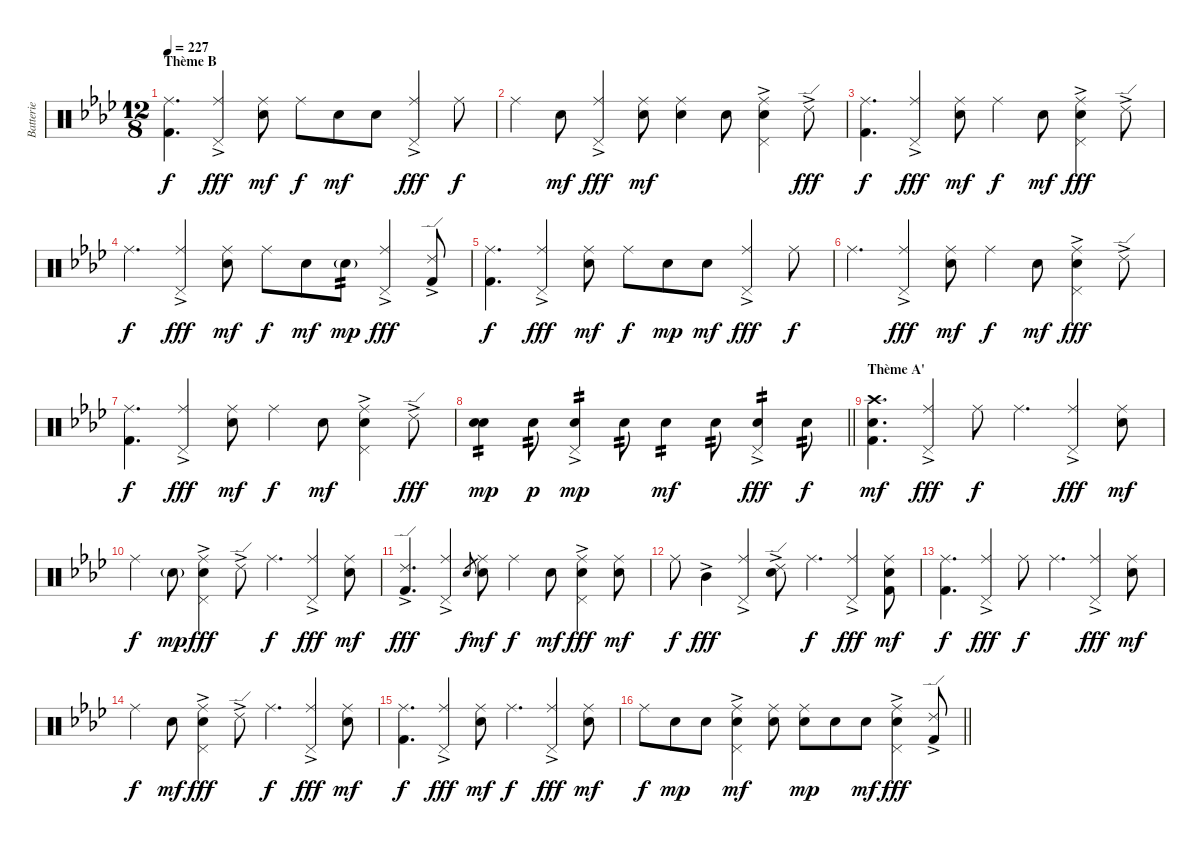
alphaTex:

\track ("Batterie" "Batterie") {instrument percussion}
\staff {score}
\articulation defaults
\ts (12 8)
\section ("" "Thème B")
\tempo 227
\clef neutral
\ks fminor
("Ride (middle)" "Kick (hit) 2").4{d dy f volume 11 balance 8} ("Ride (middle)" "Pedal Hi-Hat (hit)"{ac}).4{dy fff} ("Ride (middle)" "Snare (hit) 2").8{dy mf} "Ride (middle)".8{dy f} "Snare (hit) 2".8{dy mf} "Snare (hit) 2".8 ("Ride (middle)" "Pedal Hi-Hat (hit)"{ac}).4{dy fff} "Ride (middle)".8{dy f} |
"Ride (middle)".4 "Snare (hit) 2".8{dy mf} ("Ride (middle)" "Pedal Hi-Hat (hit)"{ac}).4{dy fff} ("Ride (middle)" "Snare (hit) 2").8{dy mf} ("Ride (middle)" "Snare (hit) 2").4 "Snare (hit) 2".8 ("Ride (middle)" "Pedal Hi-Hat (hit)"{ac} "Snare (hit) 2").4 "Ride (edge) 2"{ac}.8{dy fff} |
("Ride (middle)" "Kick (hit) 2").4{d dy f} ("Ride (middle)" "Pedal Hi-Hat (hit)"{ac}).4{dy fff} ("Ride (middle)" "Snare (hit) 2").8{dy mf} "Ride (middle)".4{dy f} "Snare (hit) 2".8{dy mf} ("Ride (middle)" "Pedal Hi-Hat (hit)"{ac} "Snare (hit) 2").4{dy fff} "Ride (edge) 2"{ac}.8 |
"Ride (middle)".4{d dy f} ("Ride (middle)" "Pedal Hi-Hat (hit)"{ac}).4{dy fff} ("Ride (middle)" "Snare (hit) 2").8{dy mf} "Ride (middle)".8{dy f} "Snare (hit) 2".8{dy mf} "Snare (hit) 2"{g}.8{tp 2 dy mp} ("Ride (middle)" "Pedal Hi-Hat (hit)"{ac}).4{dy fff} ("Ride (edge) 2"{ac} "Kick (hit) 2").8 |
("Ride (middle)" "Kick (hit) 2").4{d dy f} ("Ride (middle)" "Pedal Hi-Hat (hit)"{ac}).4{dy fff} ("Ride (middle)" "Snare (hit) 2").8{dy mf} "Ride (middle)".8{dy f} "Snare (hit) 2".8{dy mp} "Snare (hit) 2".8{dy mf} ("Ride (middle)" "Pedal Hi-Hat (hit)"{ac}).4{dy fff} "Ride (middle)".8{dy f} |
"Ride (middle)".4{d} ("Ride (middle)" "Pedal Hi-Hat (hit)"{ac}).4{dy fff} ("Ride (middle)" "Snare (hit) 2").8{dy mf} "Ride (middle)".4{dy f} "Snare (hit) 2".8{dy mf} ("Ride (middle)" "Pedal Hi-Hat (hit)"{ac} "Snare (hit) 2").4{dy fff} "Ride (edge) 2"{ac}.8 |
("Ride (middle)" "Kick (hit) 2").4{d dy f} ("Ride (middle)" "Pedal Hi-Hat (hit)"{ac}).4{dy fff} ("Ride (middle)" "Snare (hit) 2").8{dy mf} "Ride (middle)".4{dy f} "Snare (hit) 2".8{dy mf} ("Ride (middle)" "Pedal Hi-Hat (hit)"{ac} "Snare (hit) 2").4 "Ride (edge) 2"{ac}.8{dy fff} |
\barLineRight lightlight
("Snare (hit) 2" "Electric Snare (hit)").4{tp 2 dy mp} "Snare (hit) 2".8{tp 2 dy p} ("Pedal Hi-Hat (hit)"{ac} "Snare (hit) 2").4{tp 2 dy mp} "Snare (hit) 2".8{tp 2} "Snare (hit) 2".4{tp 2 dy mf} "Snare (hit) 2".8{tp 2} ("Pedal Hi-Hat (hit)"{ac} "Snare (hit) 2").4{tp 2 dy fff} "Snare (hit) 2".8{tp 2 dy f} |
\section ("" "Thème A'")
("Crash high (hit)" "Snare (hit) 2" "Kick (hit) 2").4{d dy mf volume 13 balance 8} ("Ride (middle)" "Pedal Hi-Hat (hit)"{ac}).4{dy fff} "Ride (middle)".8{dy f} "Ride (middle)".4{d} ("Ride (middle)" "Pedal Hi-Hat (hit)"{ac}).4{dy fff} ("Ride (middle)" "Snare (hit) 2").8{dy mf} |
"Ride (middle)".4{dy f} "Snare (hit) 2"{g}.8{dy mp} ("Ride (middle)" "Pedal Hi-Hat (hit)"{ac} "Snare (hit) 2").4{dy fff} "Ride (edge) 2"{ac}.8 "Ride (middle)".4{d dy f} ("Ride (middle)" "Pedal Hi-Hat (hit)"{ac}).4{dy fff} ("Ride (middle)" "Snare (hit) 2").8{dy mf} |
("Ride (edge) 2"{ac} "Kick (hit) 2").4{d dy fff} ("Ride (middle)" "Pedal Hi-Hat (hit)"{ac}).4 "Snare (hit) 2".8{gr dy f} ("Ride (middle)" "Snare (hit) 2").8{dy mf} "Ride (middle)".4{dy f} "Snare (hit) 2".8{dy mf} ("Ride (middle)" "Pedal Hi-Hat (hit)"{ac} "Snare (hit) 2").4{dy fff} ("Ride (middle)" "Snare (hit) 2").8{dy mf} |
"Ride (middle)".8{dy f} "Mid Tom (hit)"{ac}.4{dy fff} ("Ride (middle)" "Pedal Hi-Hat (hit)"{ac}).4 ("Ride (edge) 2"{ac} "Snare (hit) 2").8 "Ride (middle)".4{d dy f} ("Ride (middle)" "Pedal Hi-Hat (hit)"{ac}).4{dy fff} ("Ride (middle)" "Snare (hit) 2" "Kick (hit) 2").8{dy mf} |
("Ride (middle)" "Kick (hit) 2").4{d dy f} ("Ride (middle)" "Pedal Hi-Hat (hit)"{ac}).4{dy fff} "Ride (middle)".8{dy f} "Ride (middle)".4{d} ("Ride (middle)" "Pedal Hi-Hat (hit)"{ac}).4{dy fff} ("Ride (middle)" "Snare (hit) 2").8{dy mf} |
"Ride (middle)".4{dy f} "Snare (hit) 2".8{dy mf} ("Ride (middle)" "Pedal Hi-Hat (hit)"{ac} "Snare (hit) 2").4{dy fff} "Ride (edge) 2"{ac}.8 "Ride (middle)".4{d dy f} ("Ride (middle)" "Pedal Hi-Hat (hit)"{ac}).4{dy fff} ("Ride (middle)" "Snare (hit) 2").8{dy mf} |
("Ride (middle)" "Kick (hit) 2").4{d dy f} ("Ride (middle)" "Pedal Hi-Hat (hit)"{ac}).4{dy fff} ("Ride (middle)" "Snare (hit) 2").8{dy mf} "Ride (middle)".4{d dy f} ("Ride (middle)" "Pedal Hi-Hat (hit)"{ac}).4{dy fff} ("Ride (middle)" "Snare (hit) 2").8{dy mf} |
\barLineRight lightlight "Ride (middle)".8{dy f} "Snare (hit) 2".8{dy mp} "Snare (hit) 2".8
("Ride (middle)" "Pedal Hi-Hat (hit)"{ac} "Snare (hit) 2").4{dy mf} ("Ride (middle)" "Snare (hit) 2").8 ("Ride (middle)" "Snare (hit) 2").8{dy mp} "Snare (hit) 2".8 "Snare (hit) 2".8{dy mf} ("Ride (middle)" "Pedal Hi-Hat (hit)"{ac} "Snare (hit) 2").4{dy fff} ("Ride (edge) 2"{ac} "Kick (hit) 2").8
